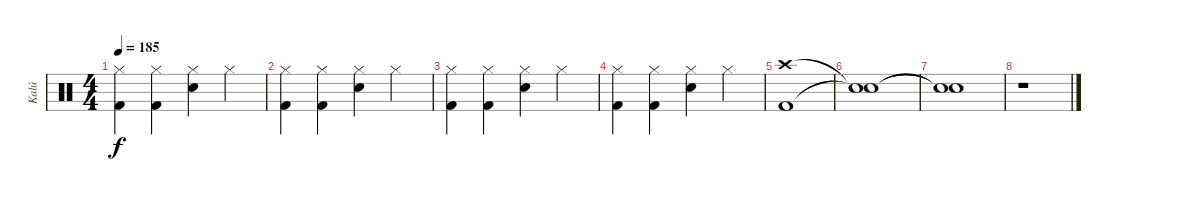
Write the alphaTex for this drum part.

\track ("Kalú" "Kalú") {instrument percussion}
\staff {score}
\articulation defaults
\ts (4 4)
\tempo 185
\clef neutral
\ks c
("Hi-Hat (closed)" "Kick (hit) 2").4{dy f} ("Hi-Hat (closed)" "Kick (hit) 2").4 ("Hi-Hat (closed)" "Snare (hit) 2").4 "Hi-Hat (closed)".4 |
("Hi-Hat (closed)" "Kick (hit) 2").4 ("Hi-Hat (closed)" "Kick (hit) 2").4 ("Hi-Hat (closed)" "Snare (hit) 2").4 "Hi-Hat (closed)".4 |
("Hi-Hat (closed)" "Kick (hit) 2").4 ("Hi-Hat (closed)" "Kick (hit) 2").4 ("Hi-Hat (closed)" "Snare (hit) 2").4 "Hi-Hat (closed)".4 |
("Hi-Hat (closed)" "Kick (hit) 2").4 ("Hi-Hat (closed)" "Kick (hit) 2").4 ("Hi-Hat (closed)" "Snare (hit) 2").4 "Hi-Hat (closed)".4 |
("Crash high (hit)" "Kick (hit) 2").1 |
("Snare (hit)"{t} "Snare (hit)"{t}).1 |
("Snare (hit)"{t} "Snare (hit)"{t}).1 |
r.1
